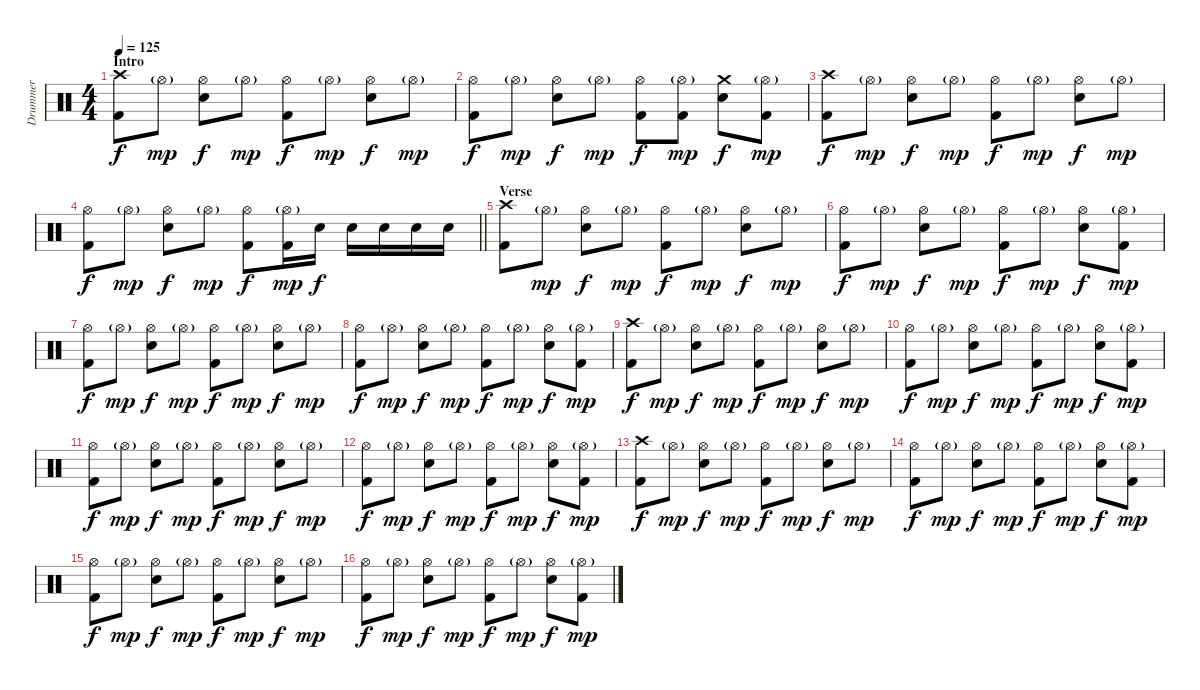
\track ("Drummer" "Drummer") {instrument percussion}
\staff {score}
\articulation defaults
\ts (4 4)
\section ("" "Intro")
\tempo 125
\clef neutral
\ks c
("Crash high (hit)" "Kick (hit) 2").8{dy f} "Hi-Hat (open)"{g}.8{dy mp} ("Hi-Hat (open)" "Electric Snare (hit)").8{dy f} "Hi-Hat (open)"{g}.8{dy mp} ("Hi-Hat (open)" "Kick (hit) 2").8{dy f} "Hi-Hat (open)"{g}.8{dy mp} ("Hi-Hat (open)" "Electric Snare (hit)").8{dy f} "Hi-Hat (open)"{g}.8{dy mp} |
("Hi-Hat (open)" "Kick (hit) 2").8{dy f} "Hi-Hat (open)"{g}.8{dy mp} ("Hi-Hat (open)" "Electric Snare (hit)").8{dy f} "Hi-Hat (open)"{g}.8{dy mp} ("Hi-Hat (open)" "Kick (hit) 2").8{dy f} ("Hi-Hat (open)"{g} "Kick (hit) 2").8{dy mp} ("Crash medium (hit)" "Electric Snare (hit)").8{dy f} ("Hi-Hat (open)"{g} "Kick (hit) 2").8{dy mp} |
("Crash high (hit)" "Kick (hit) 2").8{dy f} "Hi-Hat (open)"{g}.8{dy mp} ("Hi-Hat (open)" "Electric Snare (hit)").8{dy f} "Hi-Hat (open)"{g}.8{dy mp} ("Hi-Hat (open)" "Kick (hit) 2").8{dy f} "Hi-Hat (open)"{g}.8{dy mp} ("Hi-Hat (open)" "Electric Snare (hit)").8{dy f} "Hi-Hat (open)"{g}.8{dy mp} |
\barLineRight lightlight
("Hi-Hat (open)" "Kick (hit) 2").8{dy f} "Hi-Hat (open)"{g}.8{dy mp} ("Hi-Hat (open)" "Electric Snare (hit)").8{dy f} "Hi-Hat (open)"{g}.8{dy mp} ("Hi-Hat (open)" "Kick (hit) 2").8{dy f} ("Hi-Hat (open)"{g} "Kick (hit) 2").16{dy mp} "Electric Snare (hit)".16{dy f} "Electric Snare (hit)".16 "Electric Snare (hit)".16 "Electric Snare (hit)".16 "Electric Snare (hit)".16 |
\section ("" "Verse")
("Crash high (hit)" "Kick (hit) 2").8 "Hi-Hat (open)"{g}.8{dy mp} ("Hi-Hat (open)" "Electric Snare (hit)").8{dy f} "Hi-Hat (open)"{g}.8{dy mp} ("Hi-Hat (open)" "Kick (hit) 2").8{dy f} "Hi-Hat (open)"{g}.8{dy mp} ("Hi-Hat (open)" "Electric Snare (hit)").8{dy f} "Hi-Hat (open)"{g}.8{dy mp} |
("Hi-Hat (open)" "Kick (hit) 2").8{dy f} "Hi-Hat (open)"{g}.8{dy mp} ("Hi-Hat (open)" "Electric Snare (hit)").8{dy f} "Hi-Hat (open)"{g}.8{dy mp} ("Hi-Hat (open)" "Kick (hit) 2").8{dy f} "Hi-Hat (open)"{g}.8{dy mp} ("Hi-Hat (open)" "Electric Snare (hit)").8{dy f} ("Hi-Hat (open)"{g} "Kick (hit) 2").8{dy mp} |
("Hi-Hat (open)" "Kick (hit) 2").8{dy f} "Hi-Hat (open)"{g}.8{dy mp} ("Hi-Hat (open)" "Electric Snare (hit)").8{dy f} "Hi-Hat (open)"{g}.8{dy mp} ("Hi-Hat (open)" "Kick (hit) 2").8{dy f} "Hi-Hat (open)"{g}.8{dy mp} ("Hi-Hat (open)" "Electric Snare (hit)").8{dy f} "Hi-Hat (open)"{g}.8{dy mp} |
("Hi-Hat (open)" "Kick (hit) 2").8{dy f} "Hi-Hat (open)"{g}.8{dy mp} ("Hi-Hat (open)" "Electric Snare (hit)").8{dy f} "Hi-Hat (open)"{g}.8{dy mp} ("Hi-Hat (open)" "Kick (hit) 2").8{dy f} "Hi-Hat (open)"{g}.8{dy mp} ("Hi-Hat (open)" "Electric Snare (hit)").8{dy f} ("Hi-Hat (open)"{g} "Kick (hit) 2").8{dy mp} |
("Crash high (hit)" "Kick (hit) 2").8{dy f} "Hi-Hat (open)"{g}.8{dy mp} ("Hi-Hat (open)" "Electric Snare (hit)").8{dy f} "Hi-Hat (open)"{g}.8{dy mp} ("Hi-Hat (open)" "Kick (hit) 2").8{dy f} "Hi-Hat (open)"{g}.8{dy mp} ("Hi-Hat (open)" "Electric Snare (hit)").8{dy f} "Hi-Hat (open)"{g}.8{dy mp} |
("Hi-Hat (open)" "Kick (hit) 2").8{dy f} "Hi-Hat (open)"{g}.8{dy mp} ("Hi-Hat (open)" "Electric Snare (hit)").8{dy f} "Hi-Hat (open)"{g}.8{dy mp} ("Hi-Hat (open)" "Kick (hit) 2").8{dy f} "Hi-Hat (open)"{g}.8{dy mp} ("Hi-Hat (open)" "Electric Snare (hit)").8{dy f} ("Hi-Hat (open)"{g} "Kick (hit) 2").8{dy mp} |
("Hi-Hat (open)" "Kick (hit) 2").8{dy f} "Hi-Hat (open)"{g}.8{dy mp} ("Hi-Hat (open)" "Electric Snare (hit)").8{dy f} "Hi-Hat (open)"{g}.8{dy mp} ("Hi-Hat (open)" "Kick (hit) 2").8{dy f} "Hi-Hat (open)"{g}.8{dy mp} ("Hi-Hat (open)" "Electric Snare (hit)").8{dy f} "Hi-Hat (open)"{g}.8{dy mp} |
("Hi-Hat (open)" "Kick (hit) 2").8{dy f} "Hi-Hat (open)"{g}.8{dy mp} ("Hi-Hat (open)" "Electric Snare (hit)").8{dy f} "Hi-Hat (open)"{g}.8{dy mp} ("Hi-Hat (open)" "Kick (hit) 2").8{dy f} "Hi-Hat (open)"{g}.8{dy mp} ("Hi-Hat (open)" "Electric Snare (hit)").8{dy f} ("Hi-Hat (open)"{g} "Kick (hit) 2").8{dy mp} |
("Crash high (hit)" "Kick (hit) 2").8{dy f} "Hi-Hat (open)"{g}.8{dy mp} ("Hi-Hat (open)" "Electric Snare (hit)").8{dy f} "Hi-Hat (open)"{g}.8{dy mp} ("Hi-Hat (open)" "Kick (hit) 2").8{dy f} "Hi-Hat (open)"{g}.8{dy mp} ("Hi-Hat (open)" "Electric Snare (hit)").8{dy f} "Hi-Hat (open)"{g}.8{dy mp} |
("Hi-Hat (open)" "Kick (hit) 2").8{dy f} "Hi-Hat (open)"{g}.8{dy mp} ("Hi-Hat (open)" "Electric Snare (hit)").8{dy f} "Hi-Hat (open)"{g}.8{dy mp} ("Hi-Hat (open)" "Kick (hit) 2").8{dy f} "Hi-Hat (open)"{g}.8{dy mp} ("Hi-Hat (open)" "Electric Snare (hit)").8{dy f} ("Hi-Hat (open)"{g} "Kick (hit) 2").8{dy mp} |
("Hi-Hat (open)" "Kick (hit) 2").8{dy f} "Hi-Hat (open)"{g}.8{dy mp} ("Hi-Hat (open)" "Electric Snare (hit)").8{dy f} "Hi-Hat (open)"{g}.8{dy mp} ("Hi-Hat (open)" "Kick (hit) 2").8{dy f} "Hi-Hat (open)"{g}.8{dy mp} ("Hi-Hat (open)" "Electric Snare (hit)").8{dy f} "Hi-Hat (open)"{g}.8{dy mp} |
("Hi-Hat (open)" "Kick (hit) 2").8{dy f} "Hi-Hat (open)"{g}.8{dy mp} ("Hi-Hat (open)" "Electric Snare (hit)").8{dy f} "Hi-Hat (open)"{g}.8{dy mp} ("Hi-Hat (open)" "Kick (hit) 2").8{dy f} "Hi-Hat (open)"{g}.8{dy mp} ("Hi-Hat (open)" "Electric Snare (hit)").8{dy f} ("Hi-Hat (open)"{g} "Kick (hit) 2").8{dy mp}
